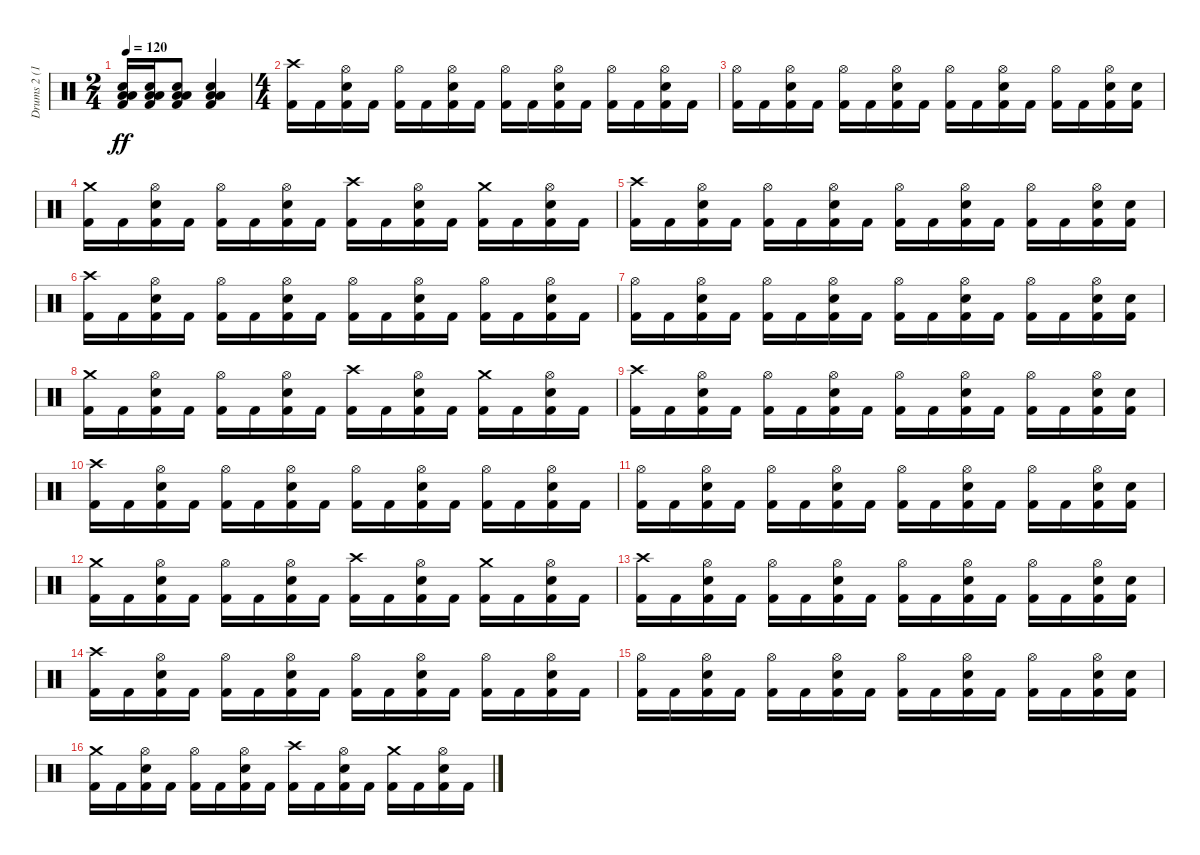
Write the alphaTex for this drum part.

\track ("Drums 2 (16)" "Drums 2 (1") {instrument percussion}
\staff {score}
\articulation defaults
\ts (2 4)
\tempo 120
\clef neutral
\ks c
("Kick (hit) 2" "Snare (hit) 2" "Low Floor Tom (hit)" "Low Tom (hit)").16{dy ff} ("Kick (hit) 2" "Snare (hit) 2" "Low Floor Tom (hit)" "Low Tom (hit)").16 ("Kick (hit) 2" "Snare (hit) 2" "Low Floor Tom (hit)" "Low Tom (hit)").8 ("Kick (hit) 2" "Snare (hit) 2" "Low Floor Tom (hit)" "Low Tom (hit)").4 |
\ts (4 4)
("Kick (hit) 2" "Crash high (hit)").16 "Kick (hit) 2".16 ("Kick (hit) 2" "Snare (hit) 2" "Hi-Hat (open)").16 "Kick (hit) 2".16 ("Kick (hit) 2" "Hi-Hat (open)").16 "Kick (hit) 2".16 ("Kick (hit) 2" "Snare (hit) 2" "Hi-Hat (open)").16 "Kick (hit) 2".16 ("Kick (hit) 2" "Hi-Hat (open)").16 "Kick (hit) 2".16 ("Kick (hit) 2" "Snare (hit) 2" "Hi-Hat (open)").16 "Kick (hit) 2".16 ("Kick (hit) 2" "Hi-Hat (open)").16 "Kick (hit) 2".16 ("Kick (hit) 2" "Snare (hit) 2" "Hi-Hat (open)").16 "Kick (hit) 2".16 |
("Kick (hit) 2" "Hi-Hat (open)").16 "Kick (hit) 2".16 ("Kick (hit) 2" "Snare (hit) 2" "Hi-Hat (open)").16 "Kick (hit) 2".16 ("Kick (hit) 2" "Hi-Hat (open)").16 "Kick (hit) 2".16 ("Kick (hit) 2" "Snare (hit) 2" "Hi-Hat (open)").16 "Kick (hit) 2".16 ("Kick (hit) 2" "Hi-Hat (open)").16 "Kick (hit) 2".16 ("Kick (hit) 2" "Snare (hit) 2" "Hi-Hat (open)").16 "Kick (hit) 2".16 ("Kick (hit) 2" "Hi-Hat (open)").16 "Kick (hit) 2".16 ("Kick (hit) 2" "Snare (hit) 2" "Hi-Hat (open)").16 ("Kick (hit) 2" "Snare (hit) 2").16 |
("Kick (hit) 2" "Crash medium (hit)").16 "Kick (hit) 2".16 ("Kick (hit) 2" "Snare (hit) 2" "Hi-Hat (open)").16 "Kick (hit) 2".16 ("Kick (hit) 2" "Hi-Hat (open)").16 "Kick (hit) 2".16 ("Kick (hit) 2" "Snare (hit) 2" "Hi-Hat (open)").16 "Kick (hit) 2".16 ("Kick (hit) 2" "Crash high (hit)").16 "Kick (hit) 2".16 ("Kick (hit) 2" "Snare (hit) 2" "Hi-Hat (open)").16 "Kick (hit) 2".16 ("Kick (hit) 2" "Crash medium (hit)").16 "Kick (hit) 2".16 ("Kick (hit) 2" "Snare (hit) 2" "Hi-Hat (open)").16 "Kick (hit) 2".16 |
("Kick (hit) 2" "Crash high (hit)").16 "Kick (hit) 2".16 ("Kick (hit) 2" "Snare (hit) 2" "Hi-Hat (open)").16 "Kick (hit) 2".16 ("Kick (hit) 2" "Hi-Hat (open)").16 "Kick (hit) 2".16 ("Kick (hit) 2" "Snare (hit) 2" "Hi-Hat (open)").16 "Kick (hit) 2".16 ("Kick (hit) 2" "Hi-Hat (open)").16 "Kick (hit) 2".16 ("Kick (hit) 2" "Snare (hit) 2" "Hi-Hat (open)").16 "Kick (hit) 2".16 ("Kick (hit) 2" "Hi-Hat (open)").16 "Kick (hit) 2".16 ("Kick (hit) 2" "Snare (hit) 2" "Hi-Hat (open)").16 ("Kick (hit) 2" "Snare (hit) 2").16 |
("Kick (hit) 2" "Crash high (hit)").16 "Kick (hit) 2".16 ("Kick (hit) 2" "Snare (hit) 2" "Hi-Hat (open)").16 "Kick (hit) 2".16 ("Kick (hit) 2" "Hi-Hat (open)").16 "Kick (hit) 2".16 ("Kick (hit) 2" "Snare (hit) 2" "Hi-Hat (open)").16 "Kick (hit) 2".16 ("Kick (hit) 2" "Hi-Hat (open)").16 "Kick (hit) 2".16 ("Kick (hit) 2" "Snare (hit) 2" "Hi-Hat (open)").16 "Kick (hit) 2".16 ("Kick (hit) 2" "Hi-Hat (open)").16 "Kick (hit) 2".16 ("Kick (hit) 2" "Snare (hit) 2" "Hi-Hat (open)").16 "Kick (hit) 2".16 |
("Kick (hit) 2" "Hi-Hat (open)").16 "Kick (hit) 2".16 ("Kick (hit) 2" "Snare (hit) 2" "Hi-Hat (open)").16 "Kick (hit) 2".16 ("Kick (hit) 2" "Hi-Hat (open)").16 "Kick (hit) 2".16 ("Kick (hit) 2" "Snare (hit) 2" "Hi-Hat (open)").16 "Kick (hit) 2".16 ("Kick (hit) 2" "Hi-Hat (open)").16 "Kick (hit) 2".16 ("Kick (hit) 2" "Snare (hit) 2" "Hi-Hat (open)").16 "Kick (hit) 2".16 ("Kick (hit) 2" "Hi-Hat (open)").16 "Kick (hit) 2".16 ("Kick (hit) 2" "Snare (hit) 2" "Hi-Hat (open)").16 ("Kick (hit) 2" "Snare (hit) 2").16 |
("Kick (hit) 2" "Crash medium (hit)").16 "Kick (hit) 2".16 ("Kick (hit) 2" "Snare (hit) 2" "Hi-Hat (open)").16 "Kick (hit) 2".16 ("Kick (hit) 2" "Hi-Hat (open)").16 "Kick (hit) 2".16 ("Kick (hit) 2" "Snare (hit) 2" "Hi-Hat (open)").16 "Kick (hit) 2".16 ("Kick (hit) 2" "Crash high (hit)").16 "Kick (hit) 2".16 ("Kick (hit) 2" "Snare (hit) 2" "Hi-Hat (open)").16 "Kick (hit) 2".16 ("Kick (hit) 2" "Crash medium (hit)").16 "Kick (hit) 2".16 ("Kick (hit) 2" "Snare (hit) 2" "Hi-Hat (open)").16 "Kick (hit) 2".16 |
("Kick (hit) 2" "Crash high (hit)").16 "Kick (hit) 2".16 ("Kick (hit) 2" "Snare (hit) 2" "Hi-Hat (open)").16 "Kick (hit) 2".16 ("Kick (hit) 2" "Hi-Hat (open)").16 "Kick (hit) 2".16 ("Kick (hit) 2" "Snare (hit) 2" "Hi-Hat (open)").16 "Kick (hit) 2".16 ("Kick (hit) 2" "Hi-Hat (open)").16 "Kick (hit) 2".16 ("Kick (hit) 2" "Snare (hit) 2" "Hi-Hat (open)").16 "Kick (hit) 2".16 ("Kick (hit) 2" "Hi-Hat (open)").16 "Kick (hit) 2".16 ("Kick (hit) 2" "Snare (hit) 2" "Hi-Hat (open)").16 ("Kick (hit) 2" "Snare (hit) 2").16 |
("Kick (hit) 2" "Crash high (hit)").16 "Kick (hit) 2".16 ("Kick (hit) 2" "Snare (hit) 2" "Hi-Hat (open)").16 "Kick (hit) 2".16 ("Kick (hit) 2" "Hi-Hat (open)").16 "Kick (hit) 2".16 ("Kick (hit) 2" "Snare (hit) 2" "Hi-Hat (open)").16 "Kick (hit) 2".16 ("Kick (hit) 2" "Hi-Hat (open)").16 "Kick (hit) 2".16 ("Kick (hit) 2" "Snare (hit) 2" "Hi-Hat (open)").16 "Kick (hit) 2".16 ("Kick (hit) 2" "Hi-Hat (open)").16 "Kick (hit) 2".16 ("Kick (hit) 2" "Snare (hit) 2" "Hi-Hat (open)").16 "Kick (hit) 2".16 |
("Kick (hit) 2" "Hi-Hat (open)").16 "Kick (hit) 2".16 ("Kick (hit) 2" "Snare (hit) 2" "Hi-Hat (open)").16 "Kick (hit) 2".16 ("Kick (hit) 2" "Hi-Hat (open)").16 "Kick (hit) 2".16 ("Kick (hit) 2" "Snare (hit) 2" "Hi-Hat (open)").16 "Kick (hit) 2".16 ("Kick (hit) 2" "Hi-Hat (open)").16 "Kick (hit) 2".16 ("Kick (hit) 2" "Snare (hit) 2" "Hi-Hat (open)").16 "Kick (hit) 2".16 ("Kick (hit) 2" "Hi-Hat (open)").16 "Kick (hit) 2".16 ("Kick (hit) 2" "Snare (hit) 2" "Hi-Hat (open)").16 ("Kick (hit) 2" "Snare (hit) 2").16 |
("Kick (hit) 2" "Crash medium (hit)").16 "Kick (hit) 2".16 ("Kick (hit) 2" "Snare (hit) 2" "Hi-Hat (open)").16 "Kick (hit) 2".16 ("Kick (hit) 2" "Hi-Hat (open)").16 "Kick (hit) 2".16 ("Kick (hit) 2" "Snare (hit) 2" "Hi-Hat (open)").16 "Kick (hit) 2".16 ("Kick (hit) 2" "Crash high (hit)").16 "Kick (hit) 2".16 ("Kick (hit) 2" "Snare (hit) 2" "Hi-Hat (open)").16 "Kick (hit) 2".16 ("Kick (hit) 2" "Crash medium (hit)").16 "Kick (hit) 2".16 ("Kick (hit) 2" "Snare (hit) 2" "Hi-Hat (open)").16 "Kick (hit) 2".16 |
("Kick (hit) 2" "Crash high (hit)").16 "Kick (hit) 2".16 ("Kick (hit) 2" "Snare (hit) 2" "Hi-Hat (open)").16 "Kick (hit) 2".16 ("Kick (hit) 2" "Hi-Hat (open)").16 "Kick (hit) 2".16 ("Kick (hit) 2" "Snare (hit) 2" "Hi-Hat (open)").16 "Kick (hit) 2".16 ("Kick (hit) 2" "Hi-Hat (open)").16 "Kick (hit) 2".16 ("Kick (hit) 2" "Snare (hit) 2" "Hi-Hat (open)").16 "Kick (hit) 2".16 ("Kick (hit) 2" "Hi-Hat (open)").16 "Kick (hit) 2".16 ("Kick (hit) 2" "Snare (hit) 2" "Hi-Hat (open)").16 ("Kick (hit) 2" "Snare (hit) 2").16 |
("Kick (hit) 2" "Crash high (hit)").16 "Kick (hit) 2".16 ("Kick (hit) 2" "Snare (hit) 2" "Hi-Hat (open)").16 "Kick (hit) 2".16 ("Kick (hit) 2" "Hi-Hat (open)").16 "Kick (hit) 2".16 ("Kick (hit) 2" "Snare (hit) 2" "Hi-Hat (open)").16 "Kick (hit) 2".16 ("Kick (hit) 2" "Hi-Hat (open)").16 "Kick (hit) 2".16 ("Kick (hit) 2" "Snare (hit) 2" "Hi-Hat (open)").16 "Kick (hit) 2".16 ("Kick (hit) 2" "Hi-Hat (open)").16 "Kick (hit) 2".16 ("Kick (hit) 2" "Snare (hit) 2" "Hi-Hat (open)").16 "Kick (hit) 2".16 |
("Kick (hit) 2" "Hi-Hat (open)").16 "Kick (hit) 2".16 ("Kick (hit) 2" "Snare (hit) 2" "Hi-Hat (open)").16 "Kick (hit) 2".16 ("Kick (hit) 2" "Hi-Hat (open)").16 "Kick (hit) 2".16 ("Kick (hit) 2" "Snare (hit) 2" "Hi-Hat (open)").16 "Kick (hit) 2".16 ("Kick (hit) 2" "Hi-Hat (open)").16 "Kick (hit) 2".16 ("Kick (hit) 2" "Snare (hit) 2" "Hi-Hat (open)").16 "Kick (hit) 2".16 ("Kick (hit) 2" "Hi-Hat (open)").16 "Kick (hit) 2".16 ("Kick (hit) 2" "Snare (hit) 2" "Hi-Hat (open)").16 ("Kick (hit) 2" "Snare (hit) 2").16 |
("Kick (hit) 2" "Crash medium (hit)").16 "Kick (hit) 2".16 ("Kick (hit) 2" "Snare (hit) 2" "Hi-Hat (open)").16 "Kick (hit) 2".16 ("Kick (hit) 2" "Hi-Hat (open)").16 "Kick (hit) 2".16 ("Kick (hit) 2" "Snare (hit) 2" "Hi-Hat (open)").16 "Kick (hit) 2".16 ("Kick (hit) 2" "Crash high (hit)").16 "Kick (hit) 2".16 ("Kick (hit) 2" "Snare (hit) 2" "Hi-Hat (open)").16 "Kick (hit) 2".16 ("Kick (hit) 2" "Crash medium (hit)").16 "Kick (hit) 2".16 ("Kick (hit) 2" "Snare (hit) 2" "Hi-Hat (open)").16 "Kick (hit) 2".16
